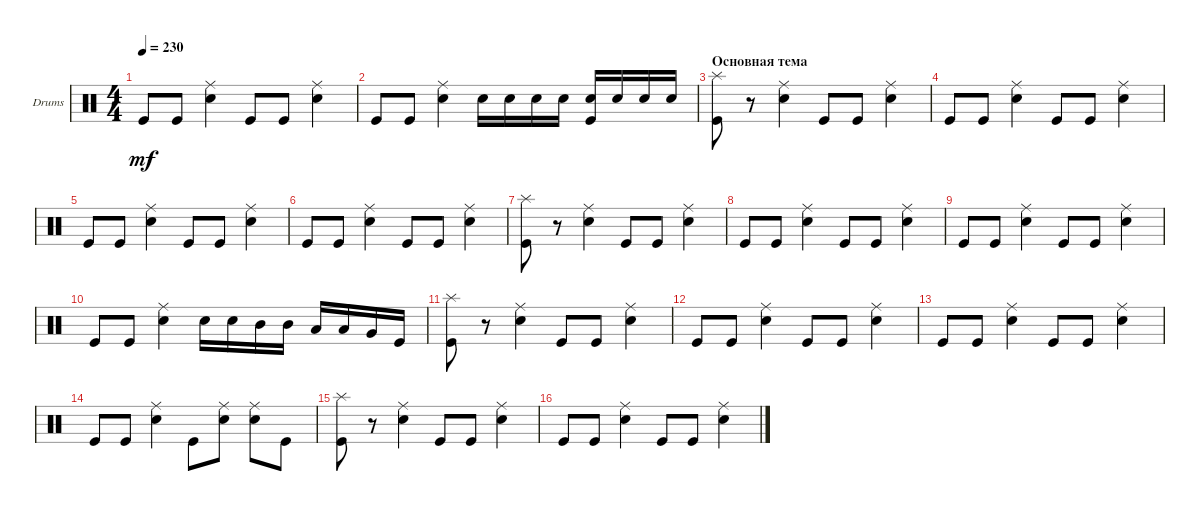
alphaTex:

\defaultSystemsLayout 4
\bracketExtendMode groupsimilarinstruments
\firstSystemTrackNameOrientation horizontal
\otherSystemsTrackNameOrientation horizontal
\track ("Drumkit" "Drums") {instrument percussion}
\staff {score}
\articulation defaults
\ts (4 4)
\tempo 230
\clef neutral
\ks c "Kick (hit)".8{dy mf} "Kick (hit)".8
("Snare (hit) 2" "Ride (middle)").4 "Kick (hit)".8 "Kick (hit)".8 ("Snare (hit) 2" "Ride (middle)").4 |
"Kick (hit)".8 "Kick (hit)".8 ("Snare (hit) 2" "Ride (middle)").4 "Snare (hit) 2".16 "Snare (hit) 2".16 "Snare (hit) 2".16 "Snare (hit) 2".16 ("Snare (hit) 2" "Kick (hit)").16 "Snare (hit) 2".16 "Snare (hit) 2".16 "Snare (hit) 2".16 |
\section ("" "Основная тема")
("Kick (hit)" "Splash (hit)").8 r.8 ("Snare (hit) 2" "Ride (middle)").4 "Kick (hit)".8 "Kick (hit)".8 ("Snare (hit) 2" "Ride (middle)").4 |
"Kick (hit)".8 "Kick (hit)".8 ("Snare (hit) 2" "Ride (middle)").4 "Kick (hit)".8 "Kick (hit)".8 ("Snare (hit) 2" "Ride (middle)").4 |
"Kick (hit)".8 "Kick (hit)".8 ("Snare (hit) 2" "Ride (middle)").4 "Kick (hit)".8 "Kick (hit)".8 ("Snare (hit) 2" "Ride (middle)").4 |
"Kick (hit)".8 "Kick (hit)".8 ("Snare (hit) 2" "Ride (middle)").4 "Kick (hit)".8 "Kick (hit)".8 ("Snare (hit) 2" "Ride (middle)").4 |
("Kick (hit)" "Splash (hit)").8 r.8 ("Snare (hit) 2" "Ride (middle)").4 "Kick (hit)".8 "Kick (hit)".8 ("Snare (hit) 2" "Ride (middle)").4 |
"Kick (hit)".8 "Kick (hit)".8 ("Snare (hit) 2" "Ride (middle)").4 "Kick (hit)".8 "Kick (hit)".8 ("Snare (hit) 2" "Ride (middle)").4 |
"Kick (hit)".8 "Kick (hit)".8 ("Snare (hit) 2" "Ride (middle)").4 "Kick (hit)".8 "Kick (hit)".8 ("Snare (hit) 2" "Ride (middle)").4 |
"Kick (hit)".8 "Kick (hit)".8 ("Snare (hit) 2" "Ride (middle)").4 "Snare (hit) 2".16 "Snare (hit) 2".16 "Mid Tom (hit)".16 "Mid Tom (hit)".16 "Low Tom (hit)".16 "Low Tom (hit)".16 "Very Low Tom (hit)".16 "Kick (hit)".16 |
("Kick (hit)" "Splash (hit)").8 r.8 ("Snare (hit) 2" "Ride (middle)").4 "Kick (hit)".8 "Kick (hit)".8 ("Snare (hit) 2" "Ride (middle)").4 |
"Kick (hit)".8 "Kick (hit)".8 ("Snare (hit) 2" "Ride (middle)").4 "Kick (hit)".8 "Kick (hit)".8 ("Snare (hit) 2" "Ride (middle)").4 |
"Kick (hit)".8 "Kick (hit)".8 ("Snare (hit) 2" "Ride (middle)").4 "Kick (hit)".8 "Kick (hit)".8 ("Snare (hit) 2" "Ride (middle)").4 |
"Kick (hit)".8 "Kick (hit)".8 ("Snare (hit) 2" "Ride (middle)").4 "Kick (hit)".8 ("Snare (hit) 2" "Ride (middle)").8 ("Snare (hit) 2" "Ride (middle)").8 "Kick (hit)".8 |
("Kick (hit)" "Splash (hit)").8 r.8 ("Snare (hit) 2" "Ride (middle)").4 "Kick (hit)".8 "Kick (hit)".8 ("Snare (hit) 2" "Ride (middle)").4 |
"Kick (hit)".8 "Kick (hit)".8 ("Snare (hit) 2" "Ride (middle)").4 "Kick (hit)".8 "Kick (hit)".8 ("Snare (hit) 2" "Ride (middle)").4
